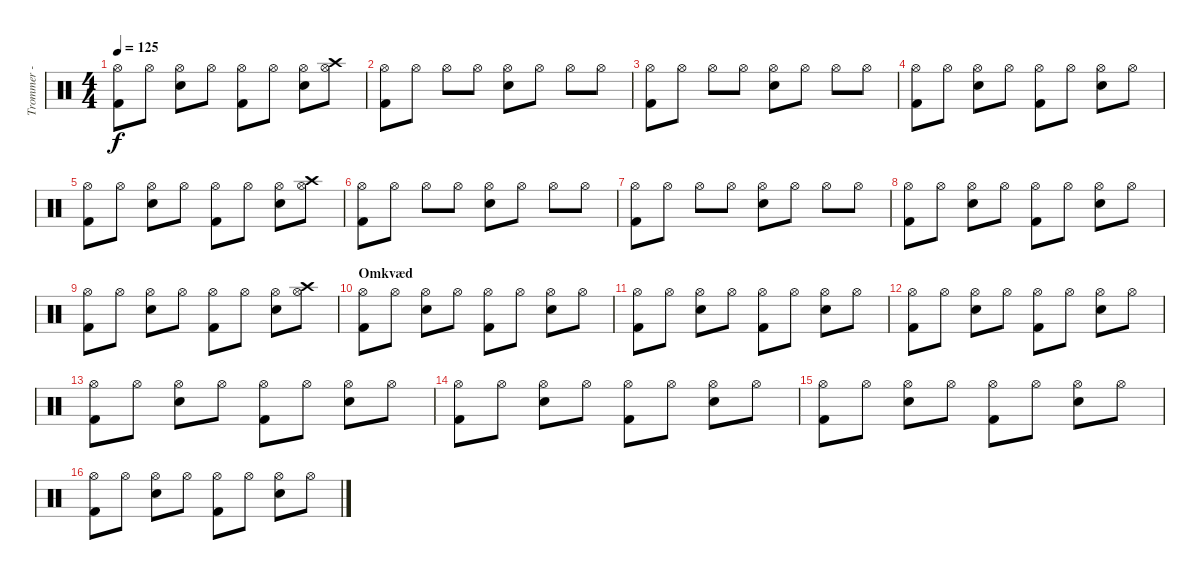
\track ("Trommer - Alex" "Trommer - ") {instrument percussion}
\staff {score}
\articulation defaults
\ts (4 4)
\tempo 125
\clef neutral
\ks c
("Hi-Hat (open)" "Kick (hit) 2").8{dy f} "Hi-Hat (open)".8 ("Hi-Hat (open)" "Snare (hit) 2").8 "Hi-Hat (open)".8 ("Hi-Hat (open)" "Kick (hit) 2").8 "Hi-Hat (open)".8 ("Hi-Hat (open)" "Snare (hit) 2").8 ("Hi-Hat (open)" "Crash high (hit)").8 |
("Hi-Hat (open)" "Kick (hit) 2").8 "Hi-Hat (open)".8 "Hi-Hat (open)".8 "Hi-Hat (open)".8 ("Hi-Hat (open)" "Snare (hit) 2").8 "Hi-Hat (open)".8 "Hi-Hat (open)".8 "Hi-Hat (open)".8 |
("Hi-Hat (open)" "Kick (hit) 2").8 "Hi-Hat (open)".8 "Hi-Hat (open)".8 "Hi-Hat (open)".8 ("Hi-Hat (open)" "Snare (hit) 2").8 "Hi-Hat (open)".8 "Hi-Hat (open)".8 "Hi-Hat (open)".8 |
("Hi-Hat (open)" "Kick (hit) 2").8 "Hi-Hat (open)".8 ("Hi-Hat (open)" "Snare (hit) 2").8 "Hi-Hat (open)".8 ("Hi-Hat (open)" "Kick (hit) 2").8 "Hi-Hat (open)".8 ("Hi-Hat (open)" "Snare (hit) 2").8 "Hi-Hat (open)".8 |
("Hi-Hat (open)" "Kick (hit) 2").8 "Hi-Hat (open)".8 ("Hi-Hat (open)" "Snare (hit) 2").8 "Hi-Hat (open)".8 ("Hi-Hat (open)" "Kick (hit) 2").8 "Hi-Hat (open)".8 ("Hi-Hat (open)" "Snare (hit) 2").8 ("Hi-Hat (open)" "Crash high (hit)").8 |
("Hi-Hat (open)" "Kick (hit) 2").8 "Hi-Hat (open)".8 "Hi-Hat (open)".8 "Hi-Hat (open)".8 ("Hi-Hat (open)" "Snare (hit) 2").8 "Hi-Hat (open)".8 "Hi-Hat (open)".8 "Hi-Hat (open)".8 |
("Hi-Hat (open)" "Kick (hit) 2").8 "Hi-Hat (open)".8 "Hi-Hat (open)".8 "Hi-Hat (open)".8 ("Hi-Hat (open)" "Snare (hit) 2").8 "Hi-Hat (open)".8 "Hi-Hat (open)".8 "Hi-Hat (open)".8 |
("Hi-Hat (open)" "Kick (hit) 2").8 "Hi-Hat (open)".8 ("Hi-Hat (open)" "Snare (hit) 2").8 "Hi-Hat (open)".8 ("Hi-Hat (open)" "Kick (hit) 2").8 "Hi-Hat (open)".8 ("Hi-Hat (open)" "Snare (hit) 2").8 "Hi-Hat (open)".8 |
("Hi-Hat (open)" "Kick (hit) 2").8 "Hi-Hat (open)".8 ("Hi-Hat (open)" "Snare (hit) 2").8 "Hi-Hat (open)".8 ("Hi-Hat (open)" "Kick (hit) 2").8 "Hi-Hat (open)".8 ("Hi-Hat (open)" "Snare (hit) 2").8 ("Hi-Hat (open)" "Crash high (hit)").8 |
\section ("" "Omkvæd")
("Hi-Hat (open)" "Kick (hit) 2").8 "Hi-Hat (open)".8 ("Hi-Hat (open)" "Snare (hit) 2").8 "Hi-Hat (open)".8 ("Hi-Hat (open)" "Kick (hit) 2").8 "Hi-Hat (open)".8 ("Hi-Hat (open)" "Snare (hit) 2").8 "Hi-Hat (open)".8 |
("Hi-Hat (open)" "Kick (hit) 2").8 "Hi-Hat (open)".8 ("Hi-Hat (open)" "Snare (hit) 2").8 "Hi-Hat (open)".8 ("Hi-Hat (open)" "Kick (hit) 2").8 "Hi-Hat (open)".8 ("Hi-Hat (open)" "Snare (hit) 2").8 "Hi-Hat (open)".8 |
("Hi-Hat (open)" "Kick (hit) 2").8 "Hi-Hat (open)".8 ("Hi-Hat (open)" "Snare (hit) 2").8 "Hi-Hat (open)".8 ("Hi-Hat (open)" "Kick (hit) 2").8 "Hi-Hat (open)".8 ("Hi-Hat (open)" "Snare (hit) 2").8 "Hi-Hat (open)".8 |
("Hi-Hat (open)" "Kick (hit) 2").8 "Hi-Hat (open)".8 ("Hi-Hat (open)" "Snare (hit) 2").8 "Hi-Hat (open)".8 ("Hi-Hat (open)" "Kick (hit) 2").8 "Hi-Hat (open)".8 ("Hi-Hat (open)" "Snare (hit) 2").8 "Hi-Hat (open)".8 |
("Hi-Hat (open)" "Kick (hit) 2").8 "Hi-Hat (open)".8 ("Hi-Hat (open)" "Snare (hit) 2").8 "Hi-Hat (open)".8 ("Hi-Hat (open)" "Kick (hit) 2").8 "Hi-Hat (open)".8 ("Hi-Hat (open)" "Snare (hit) 2").8 "Hi-Hat (open)".8 |
("Hi-Hat (open)" "Kick (hit) 2").8 "Hi-Hat (open)".8 ("Hi-Hat (open)" "Snare (hit) 2").8 "Hi-Hat (open)".8 ("Hi-Hat (open)" "Kick (hit) 2").8 "Hi-Hat (open)".8 ("Hi-Hat (open)" "Snare (hit) 2").8 "Hi-Hat (open)".8 |
("Hi-Hat (open)" "Kick (hit) 2").8 "Hi-Hat (open)".8 ("Hi-Hat (open)" "Snare (hit) 2").8 "Hi-Hat (open)".8 ("Hi-Hat (open)" "Kick (hit) 2").8 "Hi-Hat (open)".8 ("Hi-Hat (open)" "Snare (hit) 2").8 "Hi-Hat (open)".8
